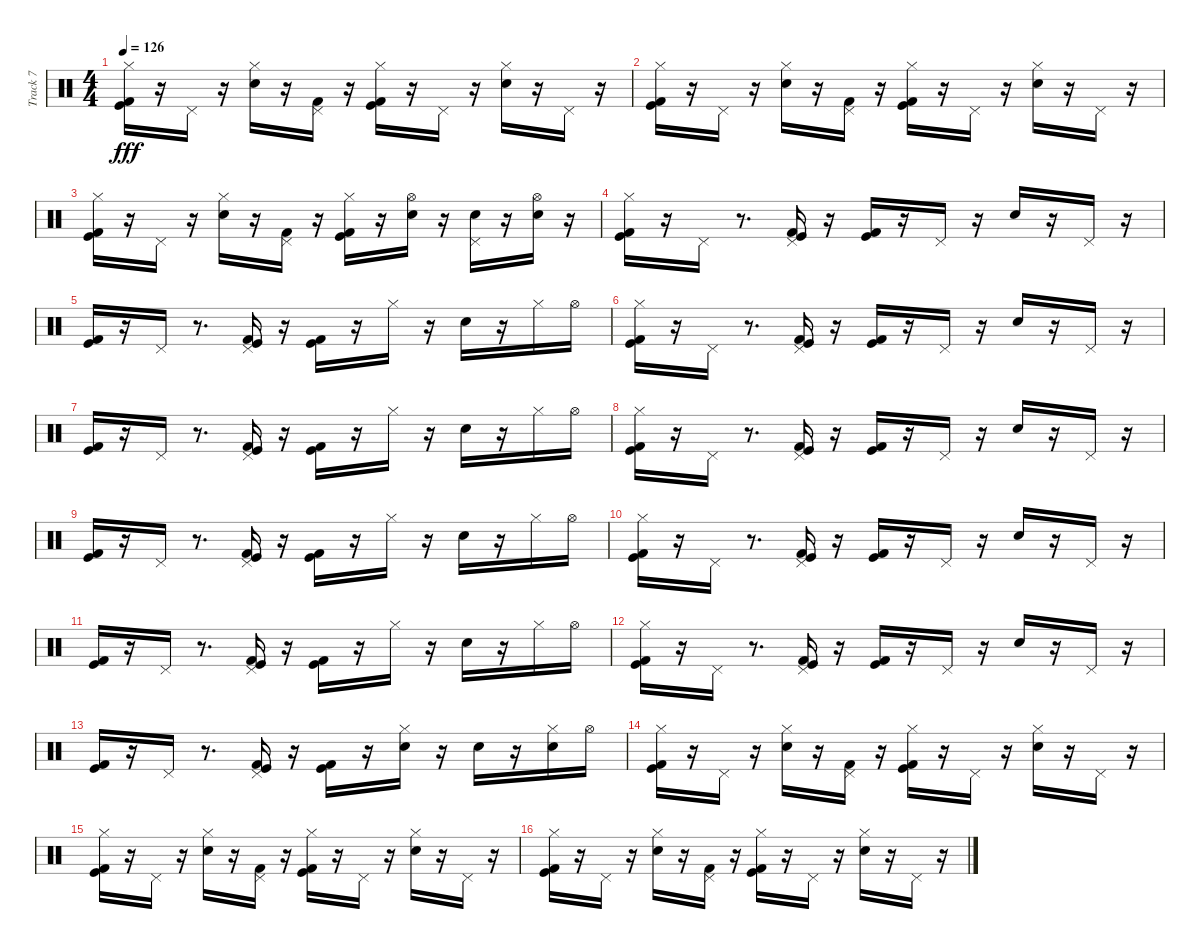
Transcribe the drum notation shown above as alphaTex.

\track ("Track 7" "Track 7") {instrument percussion}
\staff {score}
\articulation defaults
\ts (4 4)
\tempo 126
\clef neutral
\ks c
("Hi-Hat (closed)" "Kick (hit)" "Kick (hit) 2").16{dy fff} r.16 "Pedal Hi-Hat (hit)".16 r.16 ("Hi-Hat (closed)" "Electric Snare (hit)").16 r.16 ("Pedal Hi-Hat (hit)" "Kick (hit) 2").16 r.16 ("Hi-Hat (closed)" "Kick (hit)" "Kick (hit) 2").16 r.16 "Pedal Hi-Hat (hit)".16 r.16 ("Hi-Hat (closed)" "Electric Snare (hit)").16 r.16 "Pedal Hi-Hat (hit)".16 r.16 |
("Hi-Hat (closed)" "Kick (hit)" "Kick (hit) 2").16 r.16 "Pedal Hi-Hat (hit)".16 r.16 ("Hi-Hat (closed)" "Electric Snare (hit)").16 r.16 ("Pedal Hi-Hat (hit)" "Kick (hit) 2").16 r.16 ("Hi-Hat (closed)" "Kick (hit)" "Kick (hit) 2").16 r.16 "Pedal Hi-Hat (hit)".16 r.16 ("Hi-Hat (closed)" "Electric Snare (hit)").16 r.16 "Pedal Hi-Hat (hit)".16 r.16 |
("Kick (hit) 2" "Kick (hit)" "Hi-Hat (closed)").16 r.16 "Pedal Hi-Hat (hit)".16 r.16 ("Electric Snare (hit)" "Hi-Hat (closed)").16 r.16 ("Kick (hit) 2" "Pedal Hi-Hat (hit)").16 r.16 ("Kick (hit) 2" "Kick (hit)" "Hi-Hat (closed)").16 r.16 ("Hi-Hat (open)" "Electric Snare (hit)").16 r.16 ("Pedal Hi-Hat (hit)" "Electric Snare (hit)").16 r.16 ("Hi-Hat (open)" "Electric Snare (hit)").16 r.16 |
("Hi-Hat (closed)" "Kick (hit)" "Kick (hit) 2").16 r.16 "Pedal Hi-Hat (hit)".16 r.8{d} ("Pedal Hi-Hat (hit)" "Kick (hit)" "Kick (hit) 2").16 r.16 ("Kick (hit)" "Kick (hit) 2").16 r.16 "Pedal Hi-Hat (hit)".16 r.16 "Electric Snare (hit)".16 r.16 "Pedal Hi-Hat (hit)".16 r.16 |
("Kick (hit)" "Kick (hit) 2").16 r.16 "Pedal Hi-Hat (hit)".16 r.8{d} ("Pedal Hi-Hat (hit)" "Kick (hit)" "Kick (hit) 2").16 r.16 ("Kick (hit)" "Kick (hit) 2").16 r.16 "Hi-Hat (closed)".16 r.16 "Electric Snare (hit)".16 r.16 "Hi-Hat (closed)".16 "Hi-Hat (open)".16 |
("Kick (hit) 2" "Hi-Hat (closed)" "Kick (hit)").16 r.16 "Pedal Hi-Hat (hit)".16 r.8{d} ("Kick (hit) 2" "Kick (hit)" "Pedal Hi-Hat (hit)").16 r.16 ("Kick (hit) 2" "Kick (hit)").16 r.16 "Pedal Hi-Hat (hit)".16 r.16 "Electric Snare (hit)".16 r.16 "Pedal Hi-Hat (hit)".16 r.16 |
("Kick (hit) 2" "Kick (hit)").16 r.16 "Pedal Hi-Hat (hit)".16 r.8{d} ("Kick (hit) 2" "Kick (hit)" "Pedal Hi-Hat (hit)").16 r.16 ("Kick (hit) 2" "Kick (hit)").16 r.16 "Hi-Hat (closed)".16 r.16 "Electric Snare (hit)".16 r.16 "Hi-Hat (closed)".16 "Hi-Hat (open)".16 |
("Kick (hit) 2" "Hi-Hat (closed)" "Kick (hit)").16 r.16 "Pedal Hi-Hat (hit)".16 r.8{d} ("Kick (hit) 2" "Kick (hit)" "Pedal Hi-Hat (hit)").16 r.16 ("Kick (hit) 2" "Kick (hit)").16 r.16 "Pedal Hi-Hat (hit)".16 r.16 "Electric Snare (hit)".16 r.16 "Pedal Hi-Hat (hit)".16 r.16 |
("Kick (hit) 2" "Kick (hit)").16 r.16 "Pedal Hi-Hat (hit)".16 r.8{d} ("Kick (hit) 2" "Kick (hit)" "Pedal Hi-Hat (hit)").16 r.16 ("Kick (hit) 2" "Kick (hit)").16 r.16 "Hi-Hat (closed)".16 r.16 "Electric Snare (hit)".16 r.16 "Hi-Hat (closed)".16 "Hi-Hat (open)".16 |
("Kick (hit) 2" "Hi-Hat (closed)" "Kick (hit)").16 r.16 "Pedal Hi-Hat (hit)".16 r.8{d} ("Kick (hit) 2" "Kick (hit)" "Pedal Hi-Hat (hit)").16 r.16 ("Kick (hit) 2" "Kick (hit)").16 r.16 "Pedal Hi-Hat (hit)".16 r.16 "Electric Snare (hit)".16 r.16 "Pedal Hi-Hat (hit)".16 r.16 |
("Kick (hit) 2" "Kick (hit)").16 r.16 "Pedal Hi-Hat (hit)".16 r.8{d} ("Kick (hit) 2" "Kick (hit)" "Pedal Hi-Hat (hit)").16 r.16 ("Kick (hit) 2" "Kick (hit)").16 r.16 "Hi-Hat (closed)".16 r.16 "Electric Snare (hit)".16 r.16 "Hi-Hat (closed)".16 "Hi-Hat (open)".16 |
("Kick (hit) 2" "Hi-Hat (closed)" "Kick (hit)").16 r.16 "Pedal Hi-Hat (hit)".16 r.8{d} ("Kick (hit) 2" "Kick (hit)" "Pedal Hi-Hat (hit)").16 r.16 ("Kick (hit) 2" "Kick (hit)").16 r.16 "Pedal Hi-Hat (hit)".16 r.16 "Electric Snare (hit)".16 r.16 "Pedal Hi-Hat (hit)".16 r.16 |
("Kick (hit) 2" "Kick (hit)").16 r.16 "Pedal Hi-Hat (hit)".16 r.8{d} ("Kick (hit) 2" "Kick (hit)" "Pedal Hi-Hat (hit)").16 r.16 ("Kick (hit) 2" "Kick (hit)").16 r.16 ("Electric Snare (hit)" "Hi-Hat (closed)").16 r.16 "Electric Snare (hit)".16 r.16 ("Electric Snare (hit)" "Hi-Hat (closed)").16 "Hi-Hat (open)".16 |
("Hi-Hat (closed)" "Kick (hit)" "Kick (hit) 2").16 r.16 "Pedal Hi-Hat (hit)".16 r.16 ("Hi-Hat (closed)" "Electric Snare (hit)").16 r.16 ("Pedal Hi-Hat (hit)" "Kick (hit) 2").16 r.16 ("Hi-Hat (closed)" "Kick (hit)" "Kick (hit) 2").16 r.16 "Pedal Hi-Hat (hit)".16 r.16 ("Hi-Hat (closed)" "Electric Snare (hit)").16 r.16 "Pedal Hi-Hat (hit)".16 r.16 |
("Kick (hit) 2" "Kick (hit)" "Hi-Hat (closed)").16 r.16 "Pedal Hi-Hat (hit)".16 r.16 ("Electric Snare (hit)" "Hi-Hat (closed)").16 r.16 ("Kick (hit) 2" "Pedal Hi-Hat (hit)").16 r.16 ("Kick (hit) 2" "Kick (hit)" "Hi-Hat (closed)").16 r.16 "Pedal Hi-Hat (hit)".16 r.16 ("Electric Snare (hit)" "Hi-Hat (closed)").16 r.16 "Pedal Hi-Hat (hit)".16 r.16 |
("Kick (hit) 2" "Kick (hit)" "Hi-Hat (closed)").16 r.16 "Pedal Hi-Hat (hit)".16 r.16 ("Electric Snare (hit)" "Hi-Hat (closed)").16 r.16 ("Kick (hit) 2" "Pedal Hi-Hat (hit)").16 r.16 ("Kick (hit) 2" "Kick (hit)" "Hi-Hat (closed)").16 r.16 "Pedal Hi-Hat (hit)".16 r.16 ("Electric Snare (hit)" "Hi-Hat (closed)").16 r.16 "Pedal Hi-Hat (hit)".16 r.16
